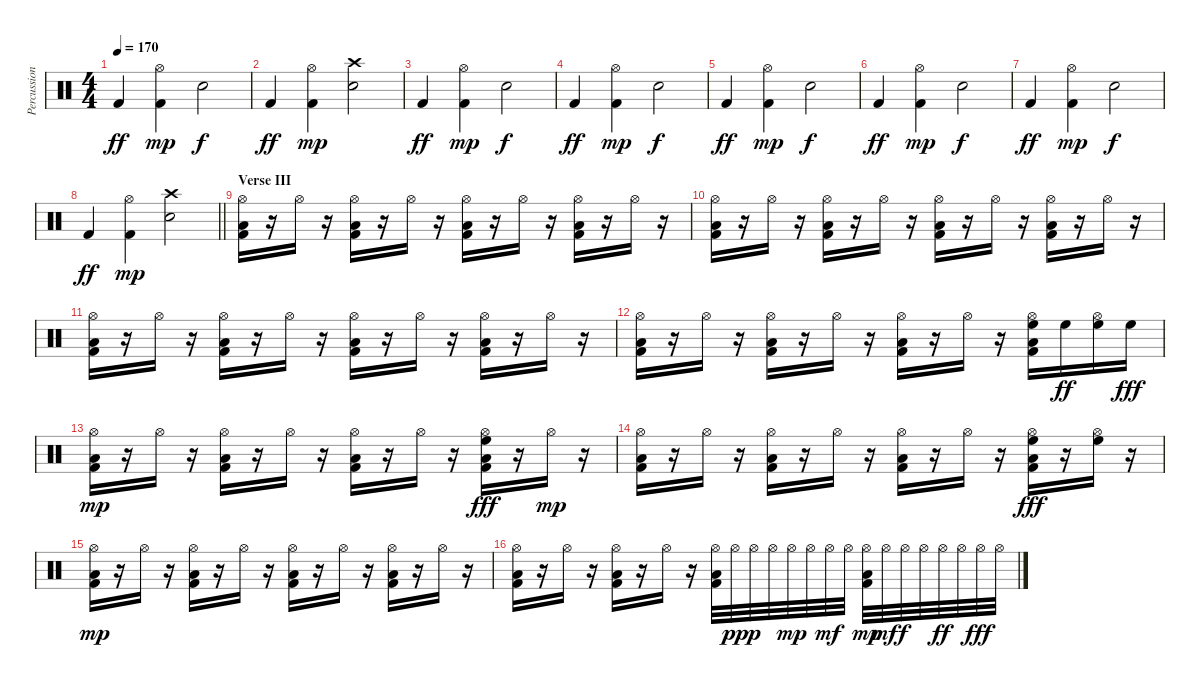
\track ("Percussion" "Percussion") {instrument percussion}
\staff {score}
\articulation defaults
\ts (4 4)
\tempo 170
\clef neutral
\ks c "Kick (hit) 2".4{dy ff}
("Hi-Hat (open)" "Kick (hit) 2").4{dy mp} "Electric Snare (hit)".2{dy f} |
"Kick (hit) 2".4{dy ff} ("Hi-Hat (open)" "Kick (hit) 2").4{dy mp} ("Crash high (hit)" "Electric Snare (hit)").2 |
"Kick (hit) 2".4{dy ff} ("Hi-Hat (open)" "Kick (hit) 2").4{dy mp} "Electric Snare (hit)".2{dy f} |
"Kick (hit) 2".4{dy ff} ("Hi-Hat (open)" "Kick (hit) 2").4{dy mp} "Electric Snare (hit)".2{dy f} |
"Kick (hit) 2".4{dy ff} ("Hi-Hat (open)" "Kick (hit) 2").4{dy mp} "Electric Snare (hit)".2{dy f} |
"Kick (hit) 2".4{dy ff} ("Hi-Hat (open)" "Kick (hit) 2").4{dy mp} "Electric Snare (hit)".2{dy f} |
"Kick (hit) 2".4{dy ff} ("Hi-Hat (open)" "Kick (hit) 2").4{dy mp} "Electric Snare (hit)".2{dy f} |
\barLineRight lightlight "Kick (hit) 2".4{dy ff}
("Hi-Hat (open)" "Kick (hit) 2").4{dy mp} ("Crash high (hit)" "Electric Snare (hit)").2 |
\section ("" "Verse III")
("Hi-Hat (open)" "Low Floor Tom (hit)" "Kick (hit) 2").16 r.16 "Hi-Hat (open)".16 r.16 ("Hi-Hat (open)" "Low Floor Tom (hit)" "Kick (hit) 2").16 r.16 "Hi-Hat (open)".16 r.16 ("Hi-Hat (open)" "Low Floor Tom (hit)" "Kick (hit) 2").16 r.16 "Hi-Hat (open)".16 r.16 ("Hi-Hat (open)" "Low Floor Tom (hit)" "Kick (hit) 2").16 r.16 "Hi-Hat (open)".16 r.16 |
("Hi-Hat (open)" "Low Floor Tom (hit)" "Kick (hit) 2").16 r.16 "Hi-Hat (open)".16 r.16 ("Hi-Hat (open)" "Low Floor Tom (hit)" "Kick (hit) 2").16 r.16 "Hi-Hat (open)".16 r.16 ("Hi-Hat (open)" "Low Floor Tom (hit)" "Kick (hit) 2").16 r.16 "Hi-Hat (open)".16 r.16 ("Hi-Hat (open)" "Low Floor Tom (hit)" "Kick (hit) 2").16 r.16 "Hi-Hat (open)".16 r.16 |
("Hi-Hat (open)" "Low Floor Tom (hit)" "Kick (hit) 2").16 r.16 "Hi-Hat (open)".16 r.16 ("Hi-Hat (open)" "Low Floor Tom (hit)" "Kick (hit) 2").16 r.16 "Hi-Hat (open)".16 r.16 ("Hi-Hat (open)" "Low Floor Tom (hit)" "Kick (hit) 2").16 r.16 "Hi-Hat (open)".16 r.16 ("Hi-Hat (open)" "Low Floor Tom (hit)" "Kick (hit) 2").16 r.16 "Hi-Hat (open)".16 r.16 |
("Hi-Hat (open)" "Low Floor Tom (hit)" "Kick (hit) 2").16 r.16 "Hi-Hat (open)".16 r.16 ("Hi-Hat (open)" "Low Floor Tom (hit)" "Kick (hit) 2").16 r.16 "Hi-Hat (open)".16 r.16 ("Hi-Hat (open)" "Low Floor Tom (hit)" "Kick (hit) 2").16 r.16 "Hi-Hat (open)".16 r.16 ("Hi-Hat (open)" "Low Floor Tom (hit)" "Kick (hit) 2" "High Floor Tom (hit)").16 "High Floor Tom (hit)".16{dy ff} ("Hi-Hat (open)" "High Floor Tom (hit)").16 "High Floor Tom (hit)".16{dy fff} |
("Hi-Hat (open)" "Low Floor Tom (hit)" "Kick (hit) 2").16{dy mp} r.16 "Hi-Hat (open)".16 r.16 ("Hi-Hat (open)" "Low Floor Tom (hit)" "Kick (hit) 2").16 r.16 "Hi-Hat (open)".16 r.16 ("Hi-Hat (open)" "Low Floor Tom (hit)" "Kick (hit) 2").16 r.16 "Hi-Hat (open)".16 r.16 ("Hi-Hat (open)" "Low Floor Tom (hit)" "Kick (hit) 2" "High Floor Tom (hit)").16{dy fff} r.16 "Hi-Hat (open)".16{dy mp} r.16 |
("Hi-Hat (open)" "Low Floor Tom (hit)" "Kick (hit) 2").16 r.16 "Hi-Hat (open)".16 r.16 ("Hi-Hat (open)" "Low Floor Tom (hit)" "Kick (hit) 2").16 r.16 "Hi-Hat (open)".16 r.16 ("Hi-Hat (open)" "Low Floor Tom (hit)" "Kick (hit) 2").16 r.16 "Hi-Hat (open)".16 r.16 ("Hi-Hat (open)" "Low Floor Tom (hit)" "Kick (hit) 2" "High Floor Tom (hit)").16{dy fff} r.16 ("Hi-Hat (open)" "High Floor Tom (hit)").16 r.16 |
("Hi-Hat (open)" "Low Floor Tom (hit)" "Kick (hit) 2").16{dy mp} r.16 "Hi-Hat (open)".16 r.16 ("Hi-Hat (open)" "Low Floor Tom (hit)" "Kick (hit) 2").16 r.16 "Hi-Hat (open)".16 r.16 ("Hi-Hat (open)" "Low Floor Tom (hit)" "Kick (hit) 2").16 r.16 "Hi-Hat (open)".16 r.16 ("Hi-Hat (open)" "Low Floor Tom (hit)" "Kick (hit) 2").16 r.16 "Hi-Hat (open)".16 r.16 |
("Hi-Hat (open)" "Low Floor Tom (hit)" "Kick (hit) 2").16 r.16 "Hi-Hat (open)".16 r.16 ("Hi-Hat (open)" "Low Floor Tom (hit)" "Kick (hit) 2").16 r.16 "Hi-Hat (open)".16 r.16 ("Hi-Hat (open)" "Low Floor Tom (hit)" "Kick (hit) 2").32 "Hi-Hat (open)".32{dy pp} "Hi-Hat (open)".32{dy p} "Hi-Hat (open)".32 "Hi-Hat (open)".32{dy mp} "Hi-Hat (open)".32 "Hi-Hat (open)".32{dy mf} "Hi-Hat (open)".32 ("Hi-Hat (open)" "Low Floor Tom (hit)" "Kick (hit) 2").32{dy mp} "Hi-Hat (open)".32{dy mf} "Hi-Hat (open)".32{dy f} "Hi-Hat (open)".32 "Hi-Hat (open)".32{dy ff} "Hi-Hat (open)".32 "Hi-Hat (open)".32{dy fff} "Hi-Hat (open)".32
